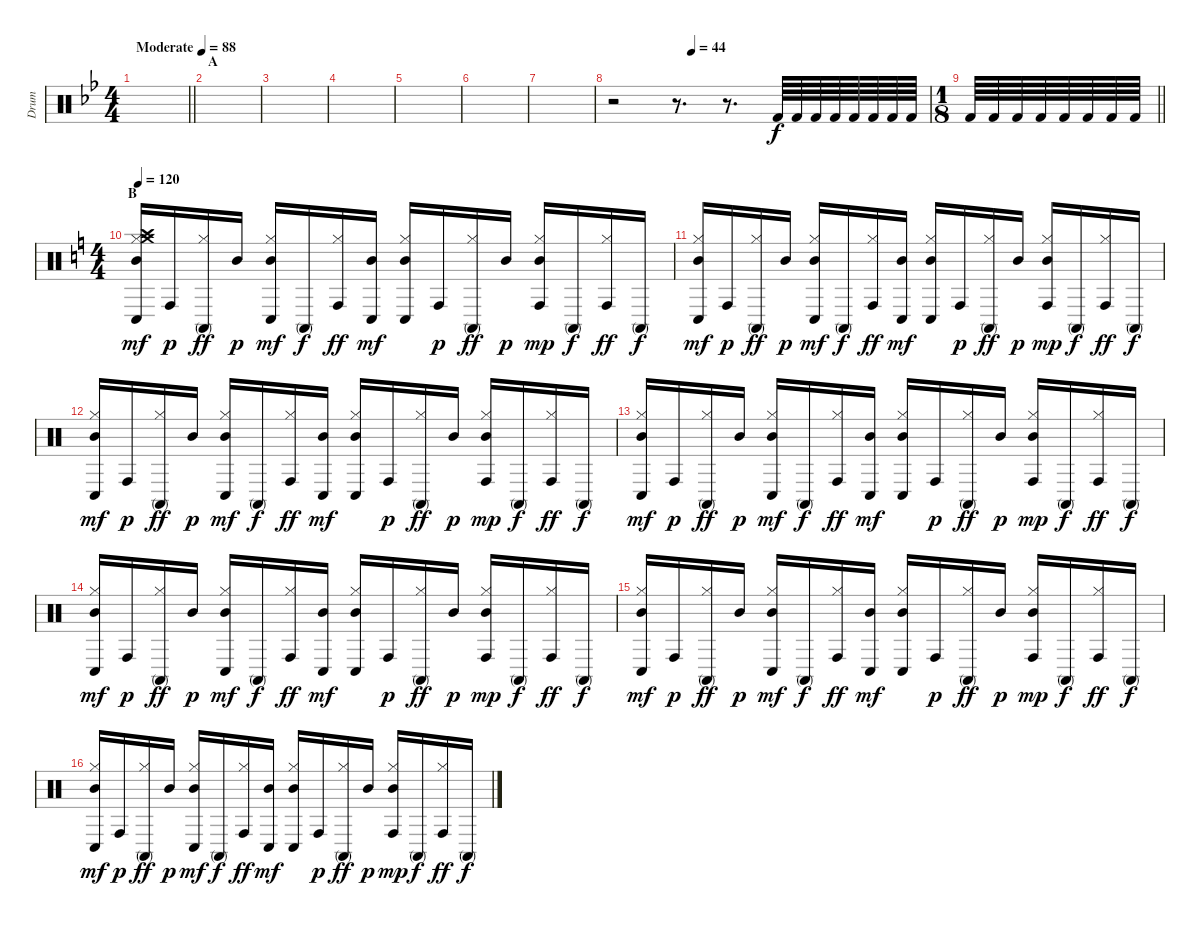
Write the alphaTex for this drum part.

\track ("Drum" "Drum") {instrument percussion}
\staff {score}
\articulation defaults
\ts (4 4)
\tempo (88 "Moderate")
\clef neutral
\barLineRight lightlight
\ks bb
|
\section ("" "A")
|
|
|
|
|
|
\tempo (44 0.25)
r.2 r.8{d} r.8{d} "Kick (hit) 2".64{volume 16} "Kick (hit) 2".64 "Kick (hit) 2".64 "Kick (hit) 2".64 "Kick (hit) 2".64 "Kick (hit) 2".64 "Kick (hit) 2".64 "Kick (hit) 2".64 |
\ts (1 8)
\barLineRight lightlight "Kick (hit) 2".64 "Kick (hit) 2".64 "Kick (hit) 2".64 "Kick (hit) 2".64 "Kick (hit) 2".64 "Kick (hit) 2".64 "Kick (hit) 2".64 "Kick (hit) 2".64
|
\ts (4 4)
\section ("" "B")
\tempo 120
\ks c
("Mid Tom (hit)" "Hi-Hat (closed)" "Conga low (hit)" "Crash high (hit)" "Crash medium (hit)").16{dy mf} "Conga high (hit)".16{dy p} ("Hi-Hat (closed)" "Conga high (mute)").16{dy ff} "Mid Tom (hit)".16{dy p} ("Mid Tom (hit)" "Hi-Hat (closed)" "Conga low (hit)").16{dy mf} "Conga high (mute)".16{dy f} ("Conga high (hit)" "Hi-Hat (closed)").16{dy ff} ("Mid Tom (hit)" "Conga low (hit)").16{dy mf} ("Mid Tom (hit)" "Hi-Hat (closed)" "Conga low (hit)").16 "Conga high (hit)".16{dy p} ("Hi-Hat (closed)" "Conga high (mute)").16{dy ff} "Mid Tom (hit)".16{dy p} ("Mid Tom (hit)" "Hi-Hat (closed)" "Conga high (hit)").16{dy mp} "Conga high (mute)".16{dy f} ("Conga high (hit)" "Hi-Hat (closed)").16{dy ff} "Conga high (mute)".16{dy f} |
("Mid Tom (hit)" "Hi-Hat (closed)" "Conga low (hit)").16{dy mf} "Conga high (hit)".16{dy p} ("Hi-Hat (closed)" "Conga high (mute)").16{dy ff} "Mid Tom (hit)".16{dy p} ("Mid Tom (hit)" "Hi-Hat (closed)" "Conga low (hit)").16{dy mf} "Conga high (mute)".16{dy f} ("Conga high (hit)" "Hi-Hat (closed)").16{dy ff} ("Mid Tom (hit)" "Conga low (hit)").16{dy mf} ("Mid Tom (hit)" "Hi-Hat (closed)" "Conga low (hit)").16 "Conga high (hit)".16{dy p} ("Hi-Hat (closed)" "Conga high (mute)").16{dy ff} "Mid Tom (hit)".16{dy p} ("Mid Tom (hit)" "Hi-Hat (closed)" "Conga high (hit)").16{dy mp} "Conga high (mute)".16{dy f} ("Conga high (hit)" "Hi-Hat (closed)").16{dy ff} "Conga high (mute)".16{dy f} |
("Mid Tom (hit)" "Hi-Hat (closed)" "Conga low (hit)").16{dy mf} "Conga high (hit)".16{dy p} ("Hi-Hat (closed)" "Conga high (mute)").16{dy ff} "Mid Tom (hit)".16{dy p} ("Mid Tom (hit)" "Hi-Hat (closed)" "Conga low (hit)").16{dy mf} "Conga high (mute)".16{dy f} ("Conga high (hit)" "Hi-Hat (closed)").16{dy ff} ("Mid Tom (hit)" "Conga low (hit)").16{dy mf} ("Mid Tom (hit)" "Hi-Hat (closed)" "Conga low (hit)").16 "Conga high (hit)".16{dy p} ("Hi-Hat (closed)" "Conga high (mute)").16{dy ff} "Mid Tom (hit)".16{dy p} ("Mid Tom (hit)" "Hi-Hat (closed)" "Conga high (hit)").16{dy mp} "Conga high (mute)".16{dy f} ("Conga high (hit)" "Hi-Hat (closed)").16{dy ff} "Conga high (mute)".16{dy f} |
("Mid Tom (hit)" "Hi-Hat (closed)" "Conga low (hit)").16{dy mf} "Conga high (hit)".16{dy p} ("Hi-Hat (closed)" "Conga high (mute)").16{dy ff} "Mid Tom (hit)".16{dy p} ("Mid Tom (hit)" "Hi-Hat (closed)" "Conga low (hit)").16{dy mf} "Conga high (mute)".16{dy f} ("Conga high (hit)" "Hi-Hat (closed)").16{dy ff} ("Mid Tom (hit)" "Conga low (hit)").16{dy mf} ("Mid Tom (hit)" "Hi-Hat (closed)" "Conga low (hit)").16 "Conga high (hit)".16{dy p} ("Hi-Hat (closed)" "Conga high (mute)").16{dy ff} "Mid Tom (hit)".16{dy p} ("Mid Tom (hit)" "Hi-Hat (closed)" "Conga high (hit)").16{dy mp} "Conga high (mute)".16{dy f} ("Conga high (hit)" "Hi-Hat (closed)").16{dy ff} "Conga high (mute)".16{dy f} |
("Mid Tom (hit)" "Hi-Hat (closed)" "Conga low (hit)").16{dy mf} "Conga high (hit)".16{dy p} ("Hi-Hat (closed)" "Conga high (mute)").16{dy ff} "Mid Tom (hit)".16{dy p} ("Mid Tom (hit)" "Hi-Hat (closed)" "Conga low (hit)").16{dy mf} "Conga high (mute)".16{dy f} ("Conga high (hit)" "Hi-Hat (closed)").16{dy ff} ("Mid Tom (hit)" "Conga low (hit)").16{dy mf} ("Mid Tom (hit)" "Hi-Hat (closed)" "Conga low (hit)").16 "Conga high (hit)".16{dy p} ("Hi-Hat (closed)" "Conga high (mute)").16{dy ff} "Mid Tom (hit)".16{dy p} ("Mid Tom (hit)" "Hi-Hat (closed)" "Conga high (hit)").16{dy mp} "Conga high (mute)".16{dy f} ("Conga high (hit)" "Hi-Hat (closed)").16{dy ff} "Conga high (mute)".16{dy f} |
("Mid Tom (hit)" "Hi-Hat (closed)" "Conga low (hit)").16{dy mf} "Conga high (hit)".16{dy p} ("Hi-Hat (closed)" "Conga high (mute)").16{dy ff} "Mid Tom (hit)".16{dy p} ("Mid Tom (hit)" "Hi-Hat (closed)" "Conga low (hit)").16{dy mf} "Conga high (mute)".16{dy f} ("Conga high (hit)" "Hi-Hat (closed)").16{dy ff} ("Mid Tom (hit)" "Conga low (hit)").16{dy mf} ("Mid Tom (hit)" "Hi-Hat (closed)" "Conga low (hit)").16 "Conga high (hit)".16{dy p} ("Hi-Hat (closed)" "Conga high (mute)").16{dy ff} "Mid Tom (hit)".16{dy p} ("Mid Tom (hit)" "Hi-Hat (closed)" "Conga high (hit)").16{dy mp} "Conga high (mute)".16{dy f} ("Conga high (hit)" "Hi-Hat (closed)").16{dy ff} "Conga high (mute)".16{dy f} |
("Mid Tom (hit)" "Hi-Hat (closed)" "Conga low (hit)").16{dy mf} "Conga high (hit)".16{dy p} ("Hi-Hat (closed)" "Conga high (mute)").16{dy ff} "Mid Tom (hit)".16{dy p} ("Mid Tom (hit)" "Hi-Hat (closed)" "Conga low (hit)").16{dy mf} "Conga high (mute)".16{dy f} ("Conga high (hit)" "Hi-Hat (closed)").16{dy ff} ("Mid Tom (hit)" "Conga low (hit)").16{dy mf} ("Mid Tom (hit)" "Hi-Hat (closed)" "Conga low (hit)").16 "Conga high (hit)".16{dy p} ("Hi-Hat (closed)" "Conga high (mute)").16{dy ff} "Mid Tom (hit)".16{dy p} ("Mid Tom (hit)" "Hi-Hat (closed)" "Conga high (hit)").16{dy mp} "Conga high (mute)".16{dy f} ("Conga high (hit)" "Hi-Hat (closed)").16{dy ff} "Conga high (mute)".16{dy f}
